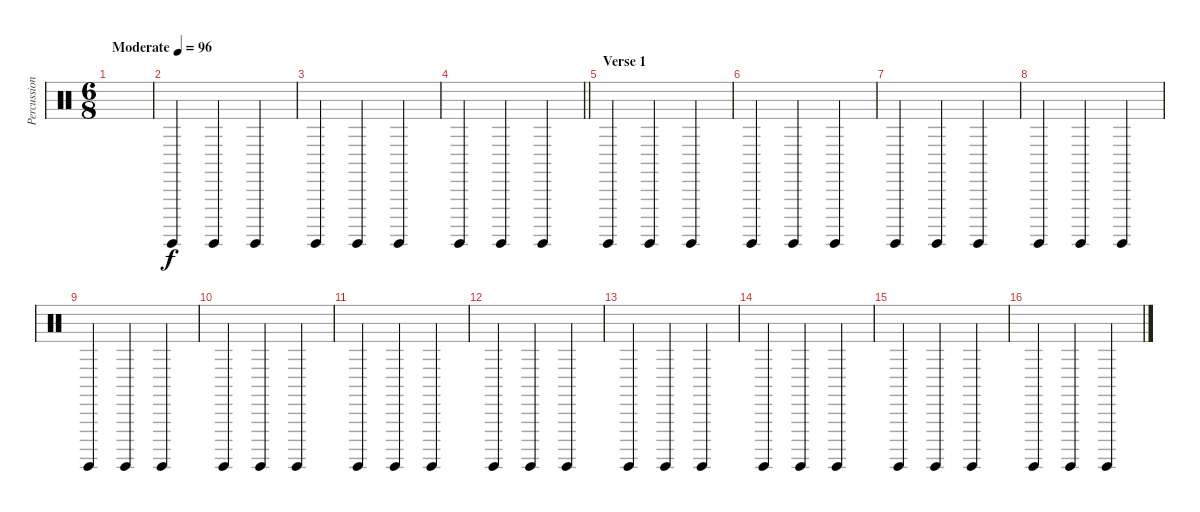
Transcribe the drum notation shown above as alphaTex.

\track ("Percussion" "Percussion") {instrument percussion}
\staff {score}
\articulation defaults
\ts (6 8)
\tempo (96 "Moderate")
\clef neutral
\ks c
|
"Surdo (hit)".4 "Surdo (hit)".4 "Surdo (hit)".4 |
"Surdo (hit)".4 "Surdo (hit)".4 "Surdo (hit)".4 |
\barLineRight lightlight "Surdo (hit)".4 "Surdo (hit)".4 "Surdo (hit)".4
|
\section ("" "Verse 1")
"Surdo (hit)".4 "Surdo (hit)".4 "Surdo (hit)".4 |
"Surdo (hit)".4 "Surdo (hit)".4 "Surdo (hit)".4 |
"Surdo (hit)".4 "Surdo (hit)".4 "Surdo (hit)".4 |
"Surdo (hit)".4 "Surdo (hit)".4 "Surdo (hit)".4 |
"Surdo (hit)".4 "Surdo (hit)".4 "Surdo (hit)".4 |
"Surdo (hit)".4 "Surdo (hit)".4 "Surdo (hit)".4 |
"Surdo (hit)".4 "Surdo (hit)".4 "Surdo (hit)".4 |
"Surdo (hit)".4 "Surdo (hit)".4 "Surdo (hit)".4 |
"Surdo (hit)".4 "Surdo (hit)".4 "Surdo (hit)".4 |
"Surdo (hit)".4 "Surdo (hit)".4 "Surdo (hit)".4 |
"Surdo (hit)".4 "Surdo (hit)".4 "Surdo (hit)".4 |
"Surdo (hit)".4 "Surdo (hit)".4 "Surdo (hit)".4
